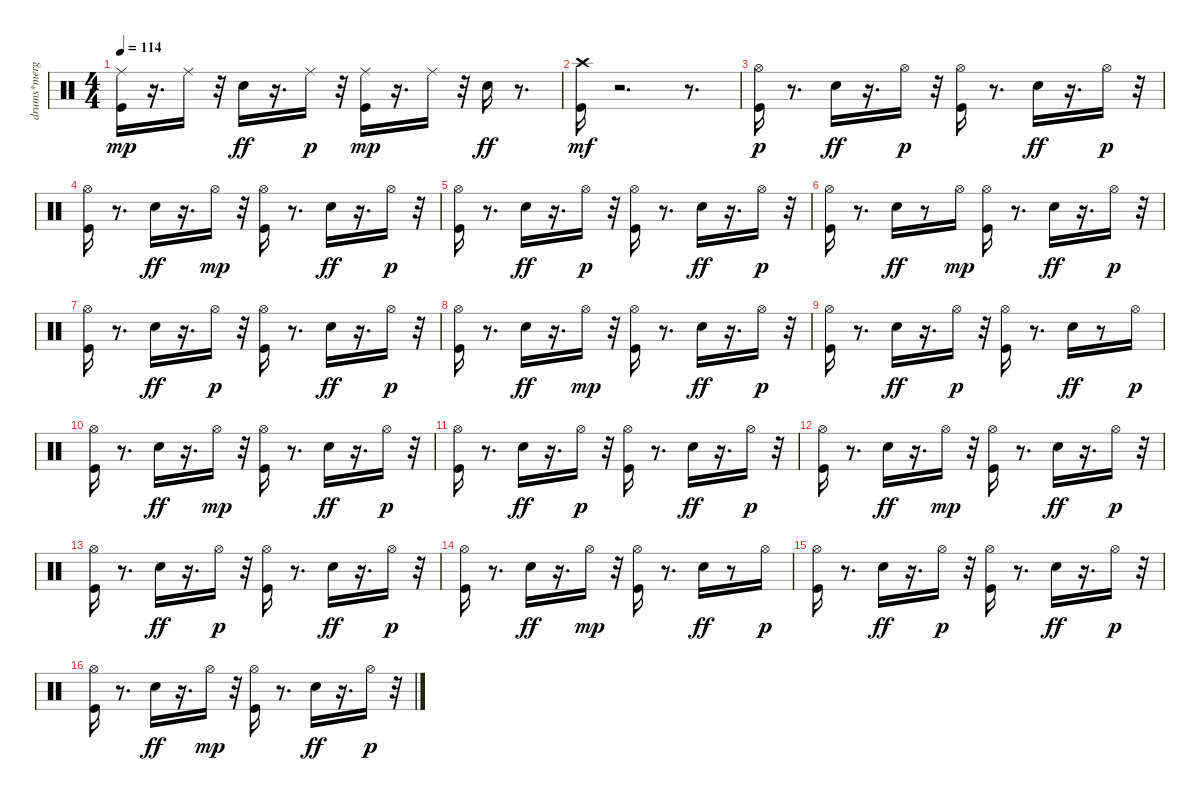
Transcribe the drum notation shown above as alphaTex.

\track ("drums*merged" "drums*merg") {instrument percussion}
\staff {score}
\articulation defaults
\ts (4 4)
\tempo 114
\clef neutral
\ks c
("Kick (hit)" "Ride (middle)").16{dy mp} r.16{d} "Ride (middle)".16 r.32 "Snare (hit) 2".16{dy ff} r.16{d} "Ride (middle)".16{dy p} r.32 ("Ride (middle)" "Kick (hit)").16{dy mp} r.16{d} "Ride (middle)".16 r.32 "Snare (hit) 2".16{dy ff} r.8{d} |
("Kick (hit)" "Crash high (hit)").16{dy mf} r.2{d} r.8{d} |
("Kick (hit)" "Hi-Hat (open)").16{dy p} r.8{d} "Snare (hit) 2".16{dy ff} r.16{d} "Hi-Hat (open)".16{dy p} r.32 ("Hi-Hat (open)" "Kick (hit)").16 r.8{d} "Snare (hit) 2".16{dy ff} r.16{d} "Hi-Hat (open)".16{dy p} r.32 |
("Hi-Hat (open)" "Kick (hit)").16 r.8{d} "Snare (hit) 2".16{dy ff} r.16{d} "Hi-Hat (open)".16{dy mp} r.32 ("Kick (hit)" "Hi-Hat (open)").16 r.8{d} "Snare (hit) 2".16{dy ff} r.16{d} "Hi-Hat (open)".16{dy p} r.32 |
("Kick (hit)" "Hi-Hat (open)").16 r.8{d} "Snare (hit) 2".16{dy ff} r.16{d} "Hi-Hat (open)".16{dy p} r.32 ("Hi-Hat (open)" "Kick (hit)").16 r.8{d} "Snare (hit) 2".16{dy ff} r.16{d} "Hi-Hat (open)".16{dy p} r.32 |
("Hi-Hat (open)" "Kick (hit)").16 r.8{d} "Snare (hit) 2".16{dy ff} r.8 "Hi-Hat (open)".16{dy mp} ("Kick (hit)" "Hi-Hat (open)").16 r.8{d} "Snare (hit) 2".16{dy ff} r.16{d} "Hi-Hat (open)".16{dy p} r.32 |
("Hi-Hat (open)" "Kick (hit)").16 r.8{d} "Snare (hit) 2".16{dy ff} r.16{d} "Hi-Hat (open)".16{dy p} r.32 ("Hi-Hat (open)" "Kick (hit)").16 r.8{d} "Snare (hit) 2".16{dy ff} r.16{d} "Hi-Hat (open)".16{dy p} r.32 |
("Kick (hit)" "Hi-Hat (open)").16 r.8{d} "Snare (hit) 2".16{dy ff} r.16{d} "Hi-Hat (open)".16{dy mp} r.32 ("Hi-Hat (open)" "Kick (hit)").16 r.8{d} "Snare (hit) 2".16{dy ff} r.16{d} "Hi-Hat (open)".16{dy p} r.32 |
("Hi-Hat (open)" "Kick (hit)").16 r.8{d} "Snare (hit) 2".16{dy ff} r.16{d} "Hi-Hat (open)".16{dy p} r.32 ("Hi-Hat (open)" "Kick (hit)").16 r.8{d} "Snare (hit) 2".16{dy ff} r.8 "Hi-Hat (open)".16{dy p} |
("Kick (hit)" "Hi-Hat (open)").16 r.8{d} "Snare (hit) 2".16{dy ff} r.16{d} "Hi-Hat (open)".16{dy mp} r.32 ("Hi-Hat (open)" "Kick (hit)").16 r.8{d} "Snare (hit) 2".16{dy ff} r.16{d} "Hi-Hat (open)".16{dy p} r.32 |
("Hi-Hat (open)" "Kick (hit)").16 r.8{d} "Snare (hit) 2".16{dy ff} r.16{d} "Hi-Hat (open)".16{dy p} r.32 ("Hi-Hat (open)" "Kick (hit)").16 r.8{d} "Snare (hit) 2".16{dy ff} r.16{d} "Hi-Hat (open)".16{dy p} r.32 |
("Hi-Hat (open)" "Kick (hit)").16 r.8{d} "Snare (hit) 2".16{dy ff} r.16{d} "Hi-Hat (open)".16{dy mp} r.32 ("Hi-Hat (open)" "Kick (hit)").16 r.8{d} "Snare (hit) 2".16{dy ff} r.16{d} "Hi-Hat (open)".16{dy p} r.32 |
("Hi-Hat (open)" "Kick (hit)").16 r.8{d} "Snare (hit) 2".16{dy ff} r.16{d} "Hi-Hat (open)".16{dy p} r.32 ("Kick (hit)" "Hi-Hat (open)").16 r.8{d} "Snare (hit) 2".16{dy ff} r.16{d} "Hi-Hat (open)".16{dy p} r.32 |
("Hi-Hat (open)" "Kick (hit)").16 r.8{d} "Snare (hit) 2".16{dy ff} r.16{d} "Hi-Hat (open)".16{dy mp} r.32 ("Kick (hit)" "Hi-Hat (open)").16 r.8{d} "Snare (hit) 2".16{dy ff} r.8 "Hi-Hat (open)".16{dy p} |
("Hi-Hat (open)" "Kick (hit)").16 r.8{d} "Snare (hit) 2".16{dy ff} r.16{d} "Hi-Hat (open)".16{dy p} r.32 ("Hi-Hat (open)" "Kick (hit)").16 r.8{d} "Snare (hit) 2".16{dy ff} r.16{d} "Hi-Hat (open)".16{dy p} r.32 |
("Hi-Hat (open)" "Kick (hit)").16 r.8{d} "Snare (hit) 2".16{dy ff} r.16{d} "Hi-Hat (open)".16{dy mp} r.32 ("Kick (hit)" "Hi-Hat (open)").16 r.8{d} "Snare (hit) 2".16{dy ff} r.16{d} "Hi-Hat (open)".16{dy p} r.32
